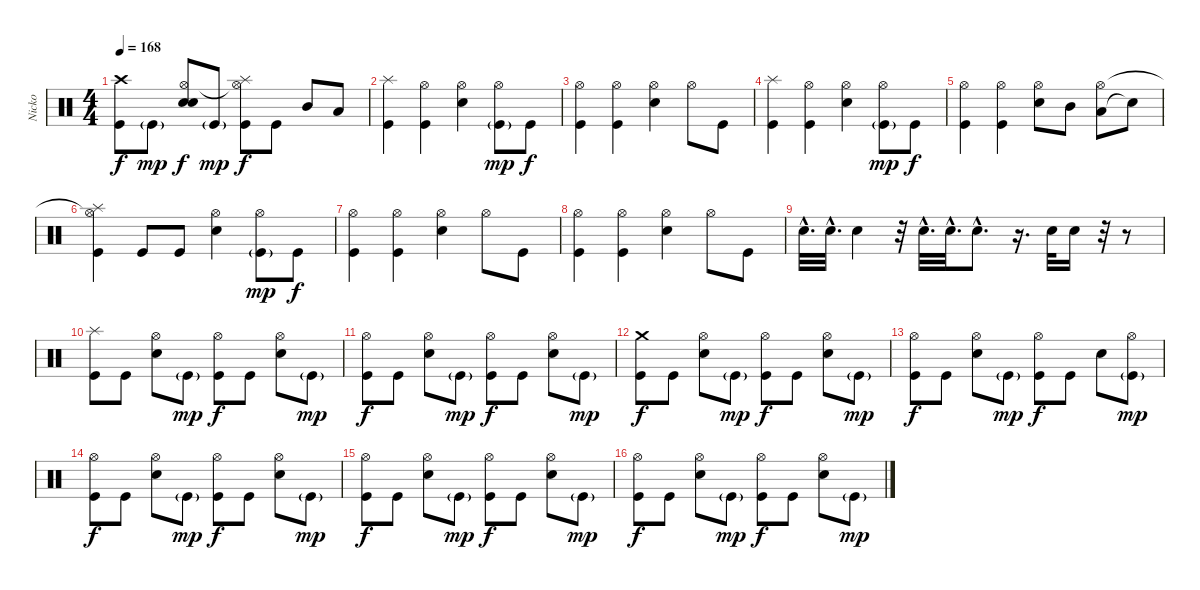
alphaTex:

\track ("Nicko" "Nicko") {instrument percussion}
\staff {score}
\articulation defaults
\ts (4 4)
\tempo 168
\clef neutral
\ks c
("Kick (hit)" "Crash high (hit)").8{dy f} "Kick (hit)"{g}.8{dy mp} ("Electric Snare (hit)" "Hi-Hat (open)" "Snare (hit)"{t}).8{dy f} "Kick (hit)"{g}.8{dy mp} ("Kick (hit)" "Hi-Hat (open)"{t} "Splash (hit)").8{dy f} "Kick (hit)".8 "Mid Tom (hit)".8 "Low Tom (hit)".8 |
("Kick (hit)" "Splash (hit)").4 ("Kick (hit)" "Hi-Hat (open)").4 ("Electric Snare (hit)" "Hi-Hat (open)").4 ("Kick (hit)"{g} "Hi-Hat (open)").8{dy mp} "Kick (hit)".8{dy f} |
("Kick (hit)" "Hi-Hat (open)").4 ("Kick (hit)" "Hi-Hat (open)").4 ("Electric Snare (hit)" "Hi-Hat (open)").4 "Hi-Hat (open)".8 "Kick (hit)".8 |
("Kick (hit)" "Splash (hit)").4 ("Kick (hit)" "Hi-Hat (open)").4 ("Electric Snare (hit)" "Hi-Hat (open)").4 ("Kick (hit)"{g} "Hi-Hat (open)").8{dy mp} "Kick (hit)".8{dy f} |
("Kick (hit)" "Hi-Hat (open)").4 ("Kick (hit)" "Hi-Hat (open)").4 ("Electric Snare (hit)" "Hi-Hat (open)").8 "Mid Tom (hit)".8 ("Low Tom (hit)" "Hi-Hat (open)").8 "Snare (hit)"{t}.8 |
("Kick (hit)" "Hi-Hat (open)"{t} "Splash (hit)").4 "Kick (hit)".8 "Kick (hit)".8 ("Electric Snare (hit)" "Hi-Hat (open)").4 ("Kick (hit)"{g} "Hi-Hat (open)").8{dy mp} "Kick (hit)".8{dy f} |
("Kick (hit)" "Hi-Hat (open)").4 ("Kick (hit)" "Hi-Hat (open)").4 ("Electric Snare (hit)" "Hi-Hat (open)").4 "Hi-Hat (open)".8 "Kick (hit)".8 |
("Kick (hit)" "Hi-Hat (open)").4 ("Kick (hit)" "Hi-Hat (open)").4 ("Electric Snare (hit)" "Hi-Hat (open)").4 "Hi-Hat (open)".8 "Kick (hit)".8 |
"Electric Snare (hit)"{hac}.32{d} "Electric Snare (hit)"{hac}.32{d} "Electric Snare (hit)".4 r.32 "Electric Snare (hit)"{hac}.32{d} "Electric Snare (hit)"{hac}.32{d} "Electric Snare (hit)"{hac}.8{d} r.16{d} "Electric Snare (hit)".32 "Electric Snare (hit)".16 r.32 r.8 |
("Kick (hit)" "Splash (hit)").8 "Kick (hit)".8 ("Electric Snare (hit)" "Hi-Hat (open)").8 "Kick (hit)"{g}.8{dy mp} ("Kick (hit)" "Hi-Hat (open)").8{dy f} "Kick (hit)".8 ("Electric Snare (hit)" "Hi-Hat (open)").8 "Kick (hit)"{g}.8{dy mp} |
("Kick (hit)" "Hi-Hat (open)").8{dy f} "Kick (hit)".8 ("Electric Snare (hit)" "Hi-Hat (open)").8 "Kick (hit)"{g}.8{dy mp} ("Kick (hit)" "Hi-Hat (open)").8{dy f} "Kick (hit)".8 ("Electric Snare (hit)" "Hi-Hat (open)").8 "Kick (hit)"{g}.8{dy mp} |
("Kick (hit)" "Crash medium (hit)").8{dy f} "Kick (hit)".8 ("Electric Snare (hit)" "Hi-Hat (open)").8 "Kick (hit)"{g}.8{dy mp} ("Kick (hit)" "Hi-Hat (open)").8{dy f} "Kick (hit)".8 ("Electric Snare (hit)" "Hi-Hat (open)").8 "Kick (hit)"{g}.8{dy mp} |
("Kick (hit)" "Hi-Hat (open)").8{dy f} "Kick (hit)".8 ("Electric Snare (hit)" "Hi-Hat (open)").8 "Kick (hit)"{g}.8{dy mp} ("Kick (hit)" "Hi-Hat (open)").8{dy f} "Kick (hit)".8 "Electric Snare (hit)".8 ("Kick (hit)"{g} "Hi-Hat (open)").8{dy mp} |
("Kick (hit)" "Hi-Hat (open)").8{dy f} "Kick (hit)".8 ("Electric Snare (hit)" "Hi-Hat (open)").8 "Kick (hit)"{g}.8{dy mp} ("Kick (hit)" "Hi-Hat (open)").8{dy f} "Kick (hit)".8 ("Electric Snare (hit)" "Hi-Hat (open)").8 "Kick (hit)"{g}.8{dy mp} |
("Kick (hit)" "Hi-Hat (open)").8{dy f} "Kick (hit)".8 ("Electric Snare (hit)" "Hi-Hat (open)").8 "Kick (hit)"{g}.8{dy mp} ("Kick (hit)" "Hi-Hat (open)").8{dy f} "Kick (hit)".8 ("Electric Snare (hit)" "Hi-Hat (open)").8 "Kick (hit)"{g}.8{dy mp} |
("Kick (hit)" "Hi-Hat (open)").8{dy f} "Kick (hit)".8 ("Electric Snare (hit)" "Hi-Hat (open)").8 "Kick (hit)"{g}.8{dy mp} ("Kick (hit)" "Hi-Hat (open)").8{dy f} "Kick (hit)".8 ("Electric Snare (hit)" "Hi-Hat (open)").8 "Kick (hit)"{g}.8{dy mp}
